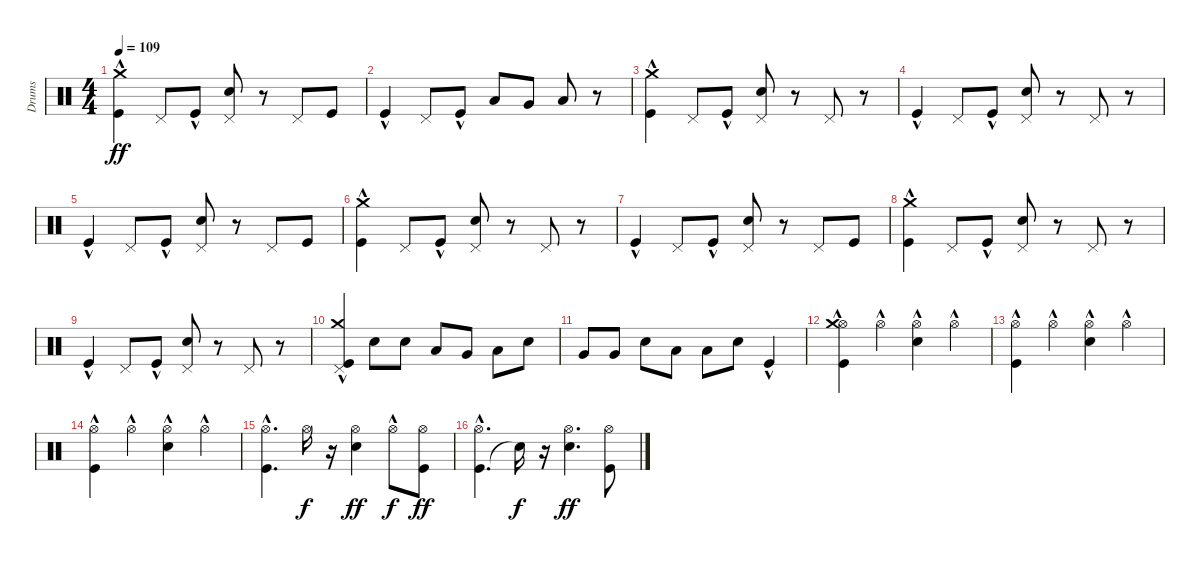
\track ("Drums" "Drums") {instrument percussion}
\staff {score}
\articulation defaults
\ts (4 4)
\tempo 109
\clef neutral
\ks c
("Kick (hit)"{hac} "Crash medium (hit)"{hac}).4{dy ff} "Pedal Hi-Hat (hit)".8 "Kick (hit)"{hac}.8 ("Electric Snare (hit)" "Pedal Hi-Hat (hit)").8 r.8 "Pedal Hi-Hat (hit)".8 "Kick (hit)".8 |
"Kick (hit)"{hac}.4 "Pedal Hi-Hat (hit)".8 "Kick (hit)"{hac}.8 "Low Tom (hit)".8 "Very Low Tom (hit)".8 "Low Floor Tom (hit)".8 r.8 |
("Kick (hit)"{hac} "Crash medium (hit)"{hac}).4 "Pedal Hi-Hat (hit)".8 "Kick (hit)"{hac}.8 ("Electric Snare (hit)" "Pedal Hi-Hat (hit)").8 r.8 "Pedal Hi-Hat (hit)".8 r.8 |
"Kick (hit)"{hac}.4 "Pedal Hi-Hat (hit)".8 "Kick (hit)"{hac}.8 ("Electric Snare (hit)" "Pedal Hi-Hat (hit)").8 r.8 "Pedal Hi-Hat (hit)".8 r.8 |
"Kick (hit)"{hac}.4 "Pedal Hi-Hat (hit)".8 "Kick (hit)"{hac}.8 ("Electric Snare (hit)" "Pedal Hi-Hat (hit)").8 r.8 "Pedal Hi-Hat (hit)".8 "Kick (hit)".8 |
("Kick (hit)"{hac} "Crash medium (hit)"{hac}).4 "Pedal Hi-Hat (hit)".8 "Kick (hit)"{hac}.8 ("Electric Snare (hit)" "Pedal Hi-Hat (hit)").8 r.8 "Pedal Hi-Hat (hit)".8 r.8 |
"Kick (hit)"{hac}.4 "Pedal Hi-Hat (hit)".8 "Kick (hit)"{hac}.8 ("Electric Snare (hit)" "Pedal Hi-Hat (hit)").8 r.8 "Pedal Hi-Hat (hit)".8 "Kick (hit)".8 |
("Kick (hit)"{hac} "Crash medium (hit)"{hac}).4 "Pedal Hi-Hat (hit)".8 "Kick (hit)"{hac}.8 ("Electric Snare (hit)" "Pedal Hi-Hat (hit)").8 r.8 "Pedal Hi-Hat (hit)".8 r.8 |
"Kick (hit)"{hac}.4 "Pedal Hi-Hat (hit)".8 "Kick (hit)"{hac}.8 ("Electric Snare (hit)" "Pedal Hi-Hat (hit)").8 r.8 "Pedal Hi-Hat (hit)".8 r.8 |
("Kick (hit)"{hac} "Pedal Hi-Hat (hit)"{hac} "Crash medium (hit)"{hac}).4 "Electric Snare (hit)".8 "Electric Snare (hit)".8 "Low Tom (hit)".8 "Very Low Tom (hit)".8 "Low Floor Tom (hit)".8 "Electric Snare (hit)".8 |
"Very Low Tom (hit)".8 "Very Low Tom (hit)".8 "Electric Snare (hit)".8 "Low Floor Tom (hit)".8 "Low Floor Tom (hit)".8 "Electric Snare (hit)".8 "Kick (hit)"{hac}.4 |
("Hi-Hat (open)"{hac} "Crash medium (hit)"{hac} "Kick (hit)").4 "Hi-Hat (open)"{hac}.4 ("Hi-Hat (open)"{hac} "Electric Snare (hit)"{hac}).4 "Hi-Hat (open)"{hac}.4 |
("Hi-Hat (open)"{hac} "Kick (hit)"{hac}).4 "Hi-Hat (open)"{hac}.4 ("Hi-Hat (open)"{hac} "Electric Snare (hit)"{hac}).4 "Hi-Hat (open)"{hac}.4 |
("Hi-Hat (open)"{hac} "Kick (hit)"{hac}).4 "Hi-Hat (open)"{hac}.4 ("Hi-Hat (open)"{hac} "Electric Snare (hit)"{hac}).4 "Hi-Hat (open)"{hac}.4 |
("Kick (hit)"{hac} "Hi-Hat (open)"{hac}).4{d} "Hi-Hat (open)".16{dy f} r.16 ("Electric Snare (hit)" "Hi-Hat (open)").4{dy ff} "Hi-Hat (open)"{hac}.8{dy f} ("Kick (hit)" "Hi-Hat (open)").8{dy ff} |
("Kick (hit)"{hac} "Hi-Hat (open)"{hac}).4{d} "Snare (hit)"{t}.16{dy f} r.16 ("Electric Snare (hit)" "Hi-Hat (open)").4{d dy ff} ("Kick (hit)" "Hi-Hat (open)").8
